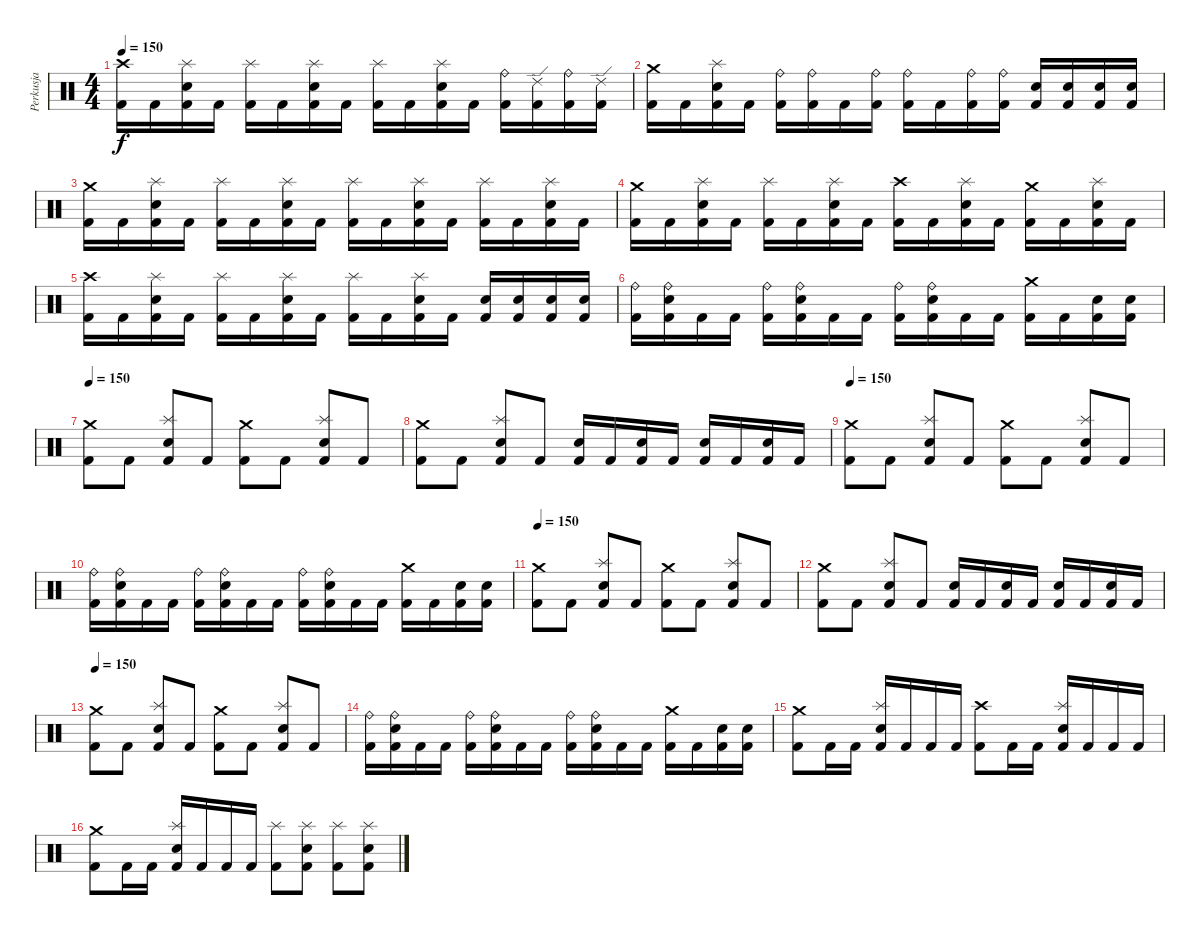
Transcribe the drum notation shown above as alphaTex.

\track ("Perkusja" "Perkusja") {instrument percussion}
\staff {score}
\articulation defaults
\ts (4 4)
\tempo 150
\clef neutral
\ks c
("Crash high (hit)" "Kick (hit) 2").16{dy f} "Kick (hit) 2".16 ("Splash (hit)" "Electric Snare (hit)" "Kick (hit) 2").16 "Kick (hit) 2".16 ("Splash (hit)" "Kick (hit) 2").16 "Kick (hit) 2".16 ("Splash (hit)" "Electric Snare (hit)" "Kick (hit) 2").16 "Kick (hit) 2".16 ("Splash (hit)" "Kick (hit) 2").16 "Kick (hit) 2".16 ("Splash (hit)" "Electric Snare (hit)" "Kick (hit) 2").16 "Kick (hit) 2".16 ("Ride (bell)" "Kick (hit) 2").16 ("Ride (edge) 2" "Kick (hit) 2").16 ("Ride (bell)" "Kick (hit) 2").16 ("Ride (edge) 2" "Kick (hit) 2").16 |
("Crash medium (hit)" "Kick (hit) 2").16 "Kick (hit) 2".16 ("Splash (hit)" "Electric Snare (hit)" "Kick (hit) 2").16 "Kick (hit) 2".16 ("Ride (bell)" "Kick (hit) 2").16 ("Ride (bell)" "Kick (hit) 2").16 "Kick (hit) 2".16 ("Ride (bell)" "Kick (hit) 2").16 ("Ride (bell)" "Kick (hit) 2").16 "Kick (hit) 2".16 ("Ride (bell)" "Kick (hit) 2").16 ("Ride (bell)" "Kick (hit) 2").16 ("Electric Snare (hit)" "Kick (hit) 2").16 ("Electric Snare (hit)" "Kick (hit) 2").16 ("Electric Snare (hit)" "Kick (hit) 2").16 ("Electric Snare (hit)" "Kick (hit) 2").16 |
("Crash medium (hit)" "Kick (hit) 2").16 "Kick (hit) 2".16 ("Splash (hit)" "Electric Snare (hit)" "Kick (hit) 2").16 "Kick (hit) 2".16 ("Splash (hit)" "Kick (hit) 2").16 "Kick (hit) 2".16 ("Splash (hit)" "Electric Snare (hit)" "Kick (hit) 2").16 "Kick (hit) 2".16 ("Splash (hit)" "Kick (hit) 2").16 "Kick (hit) 2".16 ("Splash (hit)" "Electric Snare (hit)" "Kick (hit) 2").16 "Kick (hit) 2".16 ("Splash (hit)" "Kick (hit) 2").16 "Kick (hit) 2".16 ("Splash (hit)" "Electric Snare (hit)" "Kick (hit) 2").16 "Kick (hit) 2".16 |
("Crash medium (hit)" "Kick (hit) 2").16 "Kick (hit) 2".16 ("Splash (hit)" "Electric Snare (hit)" "Kick (hit) 2").16 "Kick (hit) 2".16 ("Splash (hit)" "Kick (hit) 2").16 "Kick (hit) 2".16 ("Splash (hit)" "Electric Snare (hit)" "Kick (hit) 2").16 "Kick (hit) 2".16 ("Crash high (hit)" "Kick (hit) 2").16 "Kick (hit) 2".16 ("Splash (hit)" "Electric Snare (hit)" "Kick (hit) 2").16 "Kick (hit) 2".16 ("Crash medium (hit)" "Kick (hit) 2").16 "Kick (hit) 2".16 ("Splash (hit)" "Electric Snare (hit)" "Kick (hit) 2").16 "Kick (hit) 2".16 |
("Crash high (hit)" "Kick (hit) 2").16 "Kick (hit) 2".16 ("Splash (hit)" "Electric Snare (hit)" "Kick (hit) 2").16 "Kick (hit) 2".16 ("Splash (hit)" "Kick (hit) 2").16 "Kick (hit) 2".16 ("Splash (hit)" "Electric Snare (hit)" "Kick (hit) 2").16 "Kick (hit) 2".16 ("Splash (hit)" "Kick (hit) 2").16 "Kick (hit) 2".16 ("Splash (hit)" "Electric Snare (hit)" "Kick (hit) 2").16 "Kick (hit) 2".16 ("Electric Snare (hit)" "Kick (hit) 2").16 ("Electric Snare (hit)" "Kick (hit) 2").16 ("Electric Snare (hit)" "Kick (hit) 2").16 ("Electric Snare (hit)" "Kick (hit) 2").16 |
("Ride (bell)" "Kick (hit) 2").16 ("Ride (bell)" "Electric Snare (hit)" "Kick (hit) 2").16 "Kick (hit) 2".16 "Kick (hit) 2".16 ("Ride (bell)" "Kick (hit) 2").16 ("Ride (bell)" "Electric Snare (hit)" "Kick (hit) 2").16 "Kick (hit) 2".16 "Kick (hit) 2".16 ("Ride (bell)" "Kick (hit) 2").16 ("Ride (bell)" "Electric Snare (hit)" "Kick (hit) 2").16 "Kick (hit) 2".16 "Kick (hit) 2".16 ("Crash medium (hit)" "Kick (hit) 2").16 "Kick (hit) 2".16 ("Electric Snare (hit)" "Kick (hit) 2").16 ("Electric Snare (hit)" "Kick (hit) 2").16 |
\tempo 150
("Crash medium (hit)" "Kick (hit) 2").8 "Kick (hit) 2".8 ("Splash (hit)" "Electric Snare (hit)" "Kick (hit) 2").8 "Kick (hit) 2".8 ("Crash medium (hit)" "Kick (hit) 2").8 "Kick (hit) 2".8 ("Splash (hit)" "Electric Snare (hit)" "Kick (hit) 2").8 "Kick (hit) 2".8 |
("Crash medium (hit)" "Kick (hit) 2").8 "Kick (hit) 2".8 ("Splash (hit)" "Electric Snare (hit)" "Kick (hit) 2").8 "Kick (hit) 2".8 ("Electric Snare (hit)" "Kick (hit) 2").16 "Kick (hit) 2".16 ("Electric Snare (hit)" "Kick (hit) 2").16 "Kick (hit) 2".16 ("Electric Snare (hit)" "Kick (hit) 2").16 "Kick (hit) 2".16 ("Electric Snare (hit)" "Kick (hit) 2").16 "Kick (hit) 2".16 |
\tempo 150
("Crash medium (hit)" "Kick (hit) 2").8 "Kick (hit) 2".8 ("Splash (hit)" "Electric Snare (hit)" "Kick (hit) 2").8 "Kick (hit) 2".8 ("Crash medium (hit)" "Kick (hit) 2").8 "Kick (hit) 2".8 ("Splash (hit)" "Electric Snare (hit)" "Kick (hit) 2").8 "Kick (hit) 2".8 |
("Ride (bell)" "Kick (hit) 2").16 ("Ride (bell)" "Electric Snare (hit)" "Kick (hit) 2").16 "Kick (hit) 2".16 "Kick (hit) 2".16 ("Ride (bell)" "Kick (hit) 2").16 ("Ride (bell)" "Electric Snare (hit)" "Kick (hit) 2").16 "Kick (hit) 2".16 "Kick (hit) 2".16 ("Ride (bell)" "Kick (hit) 2").16 ("Ride (bell)" "Electric Snare (hit)" "Kick (hit) 2").16 "Kick (hit) 2".16 "Kick (hit) 2".16 ("Crash medium (hit)" "Kick (hit) 2").16 "Kick (hit) 2".16 ("Electric Snare (hit)" "Kick (hit) 2").16 ("Electric Snare (hit)" "Kick (hit) 2").16 |
\tempo 150
("Crash medium (hit)" "Kick (hit) 2").8 "Kick (hit) 2".8 ("Splash (hit)" "Electric Snare (hit)" "Kick (hit) 2").8 "Kick (hit) 2".8 ("Crash medium (hit)" "Kick (hit) 2").8 "Kick (hit) 2".8 ("Splash (hit)" "Electric Snare (hit)" "Kick (hit) 2").8 "Kick (hit) 2".8 |
("Crash medium (hit)" "Kick (hit) 2").8 "Kick (hit) 2".8 ("Splash (hit)" "Electric Snare (hit)" "Kick (hit) 2").8 "Kick (hit) 2".8 ("Electric Snare (hit)" "Kick (hit) 2").16 "Kick (hit) 2".16 ("Electric Snare (hit)" "Kick (hit) 2").16 "Kick (hit) 2".16 ("Electric Snare (hit)" "Kick (hit) 2").16 "Kick (hit) 2".16 ("Electric Snare (hit)" "Kick (hit) 2").16 "Kick (hit) 2".16 |
\tempo 150
("Crash medium (hit)" "Kick (hit) 2").8 "Kick (hit) 2".8 ("Splash (hit)" "Electric Snare (hit)" "Kick (hit) 2").8 "Kick (hit) 2".8 ("Crash medium (hit)" "Kick (hit) 2").8 "Kick (hit) 2".8 ("Splash (hit)" "Electric Snare (hit)" "Kick (hit) 2").8 "Kick (hit) 2".8 |
("Ride (bell)" "Kick (hit) 2").16 ("Ride (bell)" "Electric Snare (hit)" "Kick (hit) 2").16 "Kick (hit) 2".16 "Kick (hit) 2".16 ("Ride (bell)" "Kick (hit) 2").16 ("Ride (bell)" "Electric Snare (hit)" "Kick (hit) 2").16 "Kick (hit) 2".16 "Kick (hit) 2".16 ("Ride (bell)" "Kick (hit) 2").16 ("Ride (bell)" "Electric Snare (hit)" "Kick (hit) 2").16 "Kick (hit) 2".16 "Kick (hit) 2".16 ("Crash medium (hit)" "Kick (hit) 2").16 "Kick (hit) 2".16 ("Electric Snare (hit)" "Kick (hit) 2").16 ("Electric Snare (hit)" "Kick (hit) 2").16 |
("Crash medium (hit)" "Kick (hit) 2").8 "Kick (hit) 2".16 "Kick (hit) 2".16 ("Splash (hit)" "Electric Snare (hit)" "Kick (hit) 2").16 "Kick (hit) 2".16 "Kick (hit) 2".16 "Kick (hit) 2".16 ("Crash high (hit)" "Kick (hit) 2").8 "Kick (hit) 2".16 "Kick (hit) 2".16 ("Splash (hit)" "Electric Snare (hit)" "Kick (hit) 2").16 "Kick (hit) 2".16 "Kick (hit) 2".16 "Kick (hit) 2".16 |
("Crash medium (hit)" "Kick (hit) 2").8 "Kick (hit) 2".16 "Kick (hit) 2".16 ("Splash (hit)" "Electric Snare (hit)" "Kick (hit) 2").16 "Kick (hit) 2".16 "Kick (hit) 2".16 "Kick (hit) 2".16 ("Splash (hit)" "Kick (hit) 2").8 ("Splash (hit)" "Electric Snare (hit)" "Kick (hit) 2").8 ("Splash (hit)" "Kick (hit) 2").8 ("Splash (hit)" "Electric Snare (hit)" "Kick (hit) 2").8
